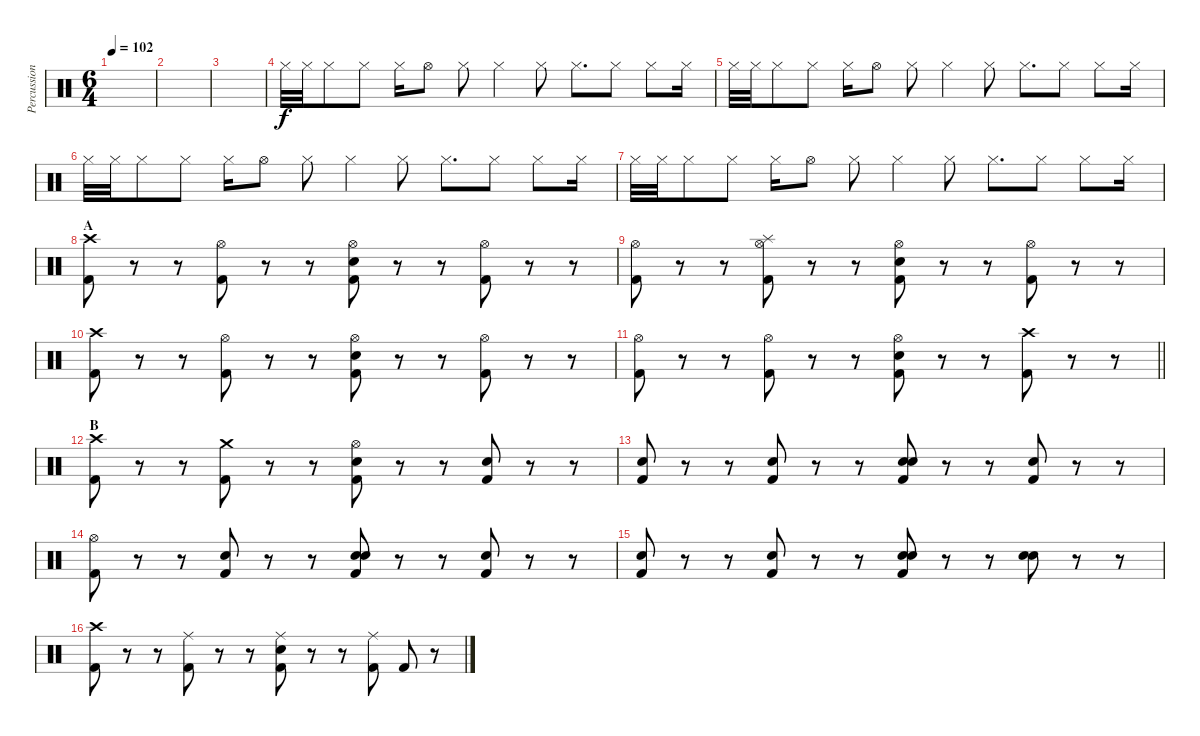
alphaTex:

\track ("Percussion" "Percussion") {instrument percussion}
\staff {score}
\articulation defaults
\ts (6 4)
\tempo 102
\clef neutral
\ks c
|
|
|
"Hi-Hat (closed)".32{volume 6} "Hi-Hat (closed)".32 "Hi-Hat (closed)".8 "Hi-Hat (closed)".8 "Hi-Hat (closed)".16 "Hi-Hat (open)".8 "Hi-Hat (closed)".8 "Hi-Hat (closed)".4 "Hi-Hat (closed)".8 "Hi-Hat (closed)".8{d} "Hi-Hat (closed)".8 "Hi-Hat (closed)".8 "Hi-Hat (closed)".16 |
"Hi-Hat (closed)".32 "Hi-Hat (closed)".32 "Hi-Hat (closed)".8 "Hi-Hat (closed)".8 "Hi-Hat (closed)".16 "Hi-Hat (open)".8 "Hi-Hat (closed)".8 "Hi-Hat (closed)".4 "Hi-Hat (closed)".8 "Hi-Hat (closed)".8{d} "Hi-Hat (closed)".8 "Hi-Hat (closed)".8 "Hi-Hat (closed)".16 |
"Hi-Hat (closed)".32 "Hi-Hat (closed)".32 "Hi-Hat (closed)".8 "Hi-Hat (closed)".8 "Hi-Hat (closed)".16 "Hi-Hat (open)".8 "Hi-Hat (closed)".8 "Hi-Hat (closed)".4 "Hi-Hat (closed)".8 "Hi-Hat (closed)".8{d} "Hi-Hat (closed)".8 "Hi-Hat (closed)".8 "Hi-Hat (closed)".16 |
"Hi-Hat (closed)".32 "Hi-Hat (closed)".32 "Hi-Hat (closed)".8 "Hi-Hat (closed)".8 "Hi-Hat (closed)".16 "Hi-Hat (open)".8 "Hi-Hat (closed)".8 "Hi-Hat (closed)".4 "Hi-Hat (closed)".8 "Hi-Hat (closed)".8{d} "Hi-Hat (closed)".8 "Hi-Hat (closed)".8 "Hi-Hat (closed)".16 |
\section ("" "A")
("Crash high (hit)" "Kick (hit) 2").8{volume 13} r.8 r.8 ("Hi-Hat (open)" "Kick (hit) 2").8 r.8 r.8 ("Hi-Hat (open)" "Snare (hit) 2" "Kick (hit) 2").8 r.8 r.8 ("Hi-Hat (open)" "Kick (hit) 2").8 r.8 r.8 |
("Hi-Hat (open)" "Kick (hit) 2").8 r.8 r.8 ("Hi-Hat (open)" "Splash (hit)" "Kick (hit) 2").8 r.8 r.8 ("Hi-Hat (open)" "Snare (hit) 2" "Kick (hit) 2").8 r.8 r.8 ("Hi-Hat (open)" "Kick (hit) 2").8 r.8 r.8 |
("Crash high (hit)" "Kick (hit) 2").8 r.8 r.8 ("Hi-Hat (open)" "Kick (hit) 2").8 r.8 r.8 ("Hi-Hat (open)" "Snare (hit) 2" "Kick (hit) 2").8 r.8 r.8 ("Hi-Hat (open)" "Kick (hit) 2").8 r.8 r.8 |
\barLineRight lightlight
("Hi-Hat (open)" "Kick (hit) 2").8 r.8 r.8 ("Hi-Hat (open)" "Kick (hit) 2").8 r.8 r.8 ("Hi-Hat (open)" "Snare (hit) 2" "Kick (hit) 2").8 r.8 r.8 ("Crash high (hit)" "Kick (hit) 2").8 r.8 r.8 |
\section ("" "B")
("Crash high (hit)" "Kick (hit) 2").8 r.8 r.8 ("Crash medium (hit)" "Kick (hit) 2").8 r.8 r.8 ("Hi-Hat (open)" "Snare (hit) 2" "Kick (hit) 2").8 r.8 r.8 ("Snare (hit)" "Kick (hit) 2").8 r.8 r.8 |
("Snare (hit)" "Kick (hit) 2").8 r.8 r.8 ("Snare (hit)" "Kick (hit) 2").8 r.8 r.8 ("Snare (hit)" "Snare (hit) 2" "Kick (hit) 2").8 r.8 r.8 ("Snare (hit)" "Kick (hit) 2").8 r.8 r.8 |
("Hi-Hat (open)" "Kick (hit) 2").8 r.8 r.8 ("Snare (hit)" "Kick (hit) 2").8 r.8 r.8 ("Snare (hit)" "Snare (hit) 2" "Kick (hit) 2").8 r.8 r.8 ("Snare (hit)" "Kick (hit) 2").8 r.8 r.8 |
("Snare (hit)" "Kick (hit) 2").8 r.8 r.8 ("Snare (hit)" "Kick (hit) 2").8 r.8 r.8 ("Snare (hit)" "Snare (hit) 2" "Kick (hit) 2").8 r.8 r.8 ("Snare (hit)" "Snare (hit) 2").8 r.8 r.8 |
("Crash high (hit)" "Kick (hit) 2").8 r.8 r.8 ("Ride (middle)" "Kick (hit) 2").8 r.8 r.8 ("Ride (middle)" "Snare (hit) 2" "Kick (hit) 2").8 r.8 r.8 ("Ride (middle)" "Kick (hit) 2").8 "Kick (hit) 2".8 r.8
